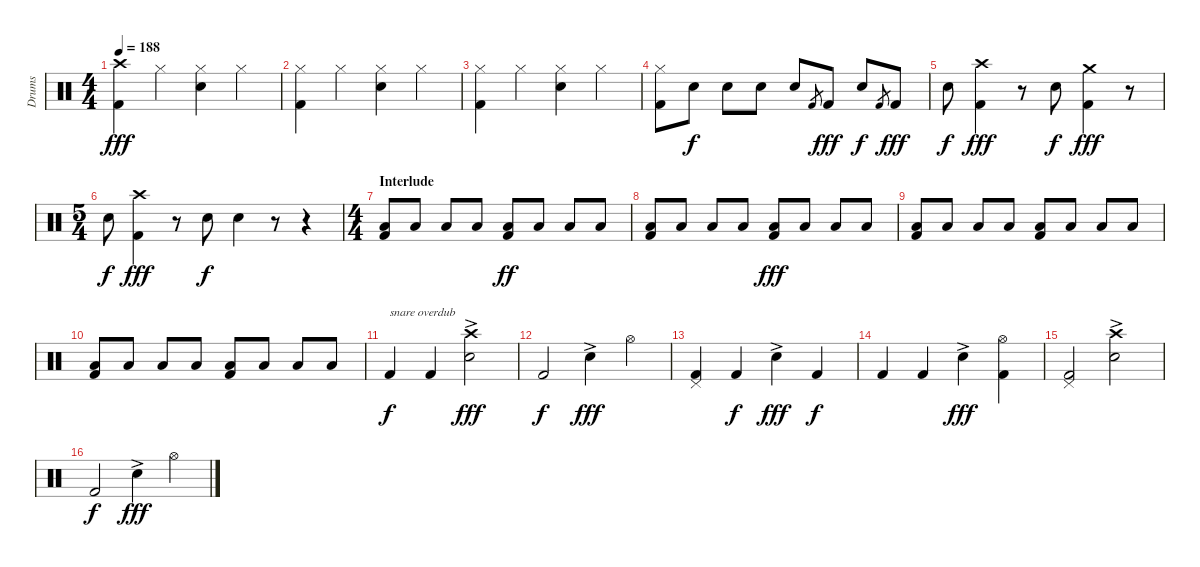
\track ("Drums" "Drums") {instrument percussion}
\staff {score}
\articulation defaults
\ts (4 4)
\tempo 188
\clef neutral
\ks c
("Crash high (hit)" "Kick (hit) 2").4{dy fff} "Hi-Hat (closed)".4 ("Hi-Hat (closed)" "Snare (hit) 2").4 "Hi-Hat (closed)".4 |
("Hi-Hat (closed)" "Kick (hit) 2").4 "Hi-Hat (closed)".4 ("Hi-Hat (closed)" "Snare (hit) 2").4 "Hi-Hat (closed)".4 |
("Hi-Hat (closed)" "Kick (hit) 2").4 "Hi-Hat (closed)".4 ("Hi-Hat (closed)" "Snare (hit) 2").4 "Hi-Hat (closed)".4 |
("Hi-Hat (closed)" "Kick (hit) 2").8 "Snare (hit) 2".8{dy f} "Snare (hit) 2".8 "Snare (hit) 2".8 "Snare (hit) 2".8 "Kick (hit) 2".8{gr} "Kick (hit) 2".8{dy fff} "Snare (hit) 2".8{dy f} "Kick (hit) 2".8{gr} "Kick (hit) 2".8{dy fff} |
"Snare (hit) 2".8{dy f} ("Crash high (hit)" "Kick (hit) 2").4{dy fff} r.8 "Snare (hit) 2".8{dy f} ("Crash medium (hit)" "Kick (hit) 2").4{dy fff} r.8 |
\ts (5 4)
"Snare (hit) 2".8{dy f} ("Crash high (hit)" "Kick (hit) 2").4{dy fff} r.8 "Snare (hit) 2".8{dy f} "Snare (hit) 2".4 r.8 r.4 |
\ts (4 4)
\section ("" "Interlude")
("Low Floor Tom (hit)" "Kick (hit) 2").8 "Low Floor Tom (hit)".8 "Low Floor Tom (hit)".8 "Low Floor Tom (hit)".8 ("Low Floor Tom (hit)" "Kick (hit) 2").8{dy ff} "Low Floor Tom (hit)".8 "Low Floor Tom (hit)".8 "Low Floor Tom (hit)".8 |
("Low Floor Tom (hit)" "Kick (hit) 2").8 "Low Floor Tom (hit)".8 "Low Floor Tom (hit)".8 "Low Floor Tom (hit)".8 ("Low Floor Tom (hit)" "Kick (hit) 2").8{dy fff} "Low Floor Tom (hit)".8 "Low Floor Tom (hit)".8 "Low Floor Tom (hit)".8 |
("Low Floor Tom (hit)" "Kick (hit) 2").8 "Low Floor Tom (hit)".8 "Low Floor Tom (hit)".8 "Low Floor Tom (hit)".8 ("Low Floor Tom (hit)" "Kick (hit) 2").8 "Low Floor Tom (hit)".8 "Low Floor Tom (hit)".8 "Low Floor Tom (hit)".8 |
("Low Floor Tom (hit)" "Kick (hit) 2").8 "Low Floor Tom (hit)".8 "Low Floor Tom (hit)".8 "Low Floor Tom (hit)".8 ("Low Floor Tom (hit)" "Kick (hit) 2").8 "Low Floor Tom (hit)".8 "Low Floor Tom (hit)".8 "Low Floor Tom (hit)".8 |
"Kick (hit) 2".4{txt "snare overdub" dy f} "Kick (hit) 2".4 ("Crash high (hit)" "Snare (hit) 2"{ac}).2{dy fff} |
"Kick (hit) 2".2{dy f} "Snare (hit) 2"{ac}.4{dy fff} "Hi-Hat (open)".4 |
("Pedal Hi-Hat (hit)" "Kick (hit) 2").4 "Kick (hit) 2".4{dy f} "Snare (hit) 2"{ac}.4{dy fff} "Kick (hit) 2".4{dy f} |
"Kick (hit) 2".4 "Kick (hit) 2".4 "Snare (hit) 2"{ac}.4{dy fff} ("Hi-Hat (open)" "Kick (hit) 2").4 |
("Pedal Hi-Hat (hit)" "Kick (hit) 2").2 ("Crash high (hit)" "Snare (hit) 2"{ac}).2 |
"Kick (hit) 2".2{dy f} "Snare (hit) 2"{ac}.4{dy fff} "Hi-Hat (open)".4
